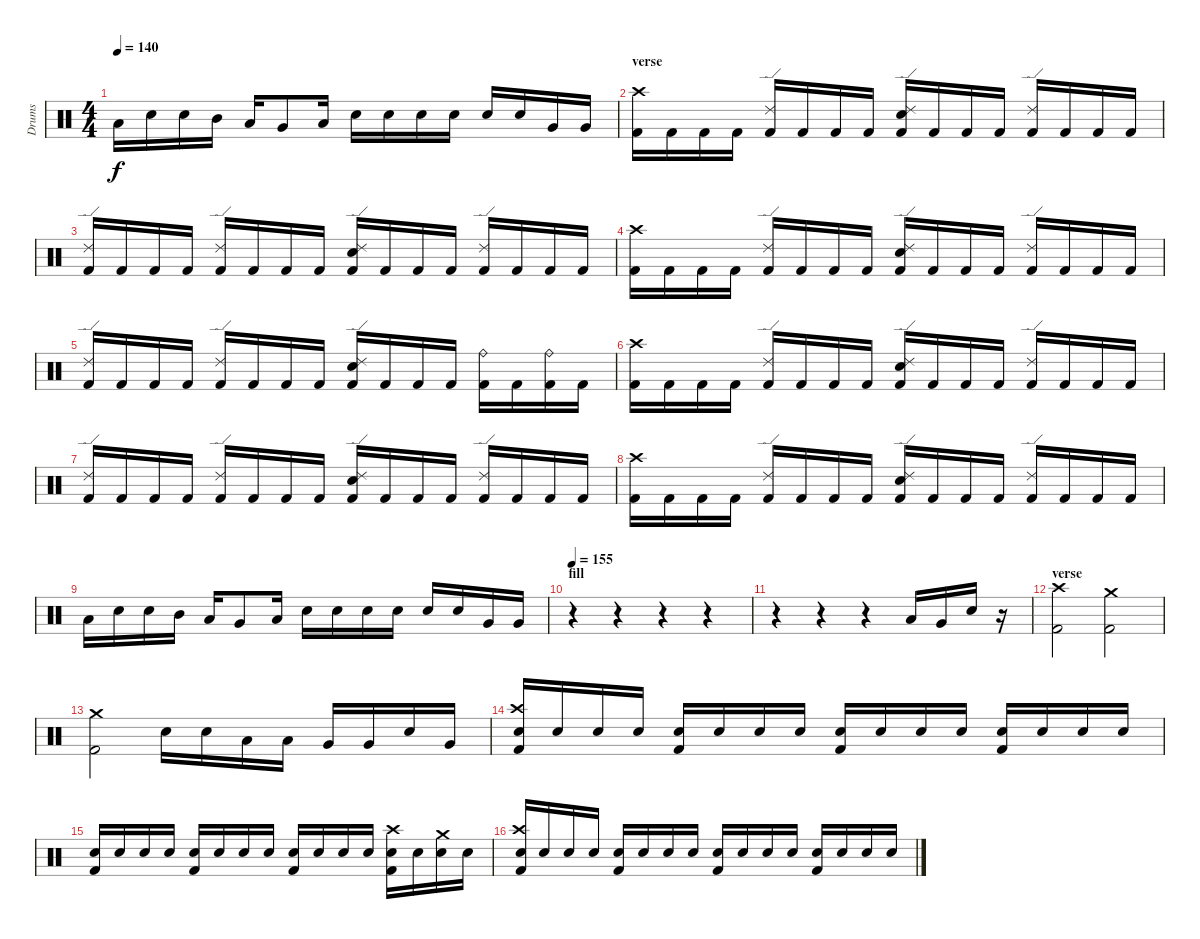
\track ("Drums" "Drums") {instrument percussion}
\staff {score}
\articulation defaults
\ts (4 4)
\tempo 140
\clef neutral
\ks c "Low Tom (hit)".16{dy f} "Snare (hit) 2".16 "Snare (hit) 2".16 "Mid Tom (hit)".16 "Low Tom (hit)".16 "Very Low Tom (hit)".8 "Low Tom (hit)".16 "Snare (hit) 2".16 "Snare (hit) 2".16 "Snare (hit) 2".16 "Snare (hit) 2".16 "Snare (hit) 2".16 "Snare (hit) 2".16 "Very Low Tom (hit)".16 "Very Low Tom (hit)".16
|
\section ("" "verse")
("Crash high (hit)" "Kick (hit) 2").16 "Kick (hit) 2".16 "Kick (hit) 2".16 "Kick (hit) 2".16 ("Ride (edge) 2" "Kick (hit) 2").16 "Kick (hit) 2".16 "Kick (hit) 2".16 "Kick (hit) 2".16 ("Ride (edge) 2" "Snare (hit) 2" "Kick (hit) 2").16 "Kick (hit) 2".16 "Kick (hit) 2".16 "Kick (hit) 2".16 ("Ride (edge) 2" "Kick (hit) 2").16 "Kick (hit) 2".16 "Kick (hit) 2".16 "Kick (hit) 2".16 |
("Ride (edge) 2" "Kick (hit) 2").16 "Kick (hit) 2".16 "Kick (hit) 2".16 "Kick (hit) 2".16 ("Ride (edge) 2" "Kick (hit) 2").16 "Kick (hit) 2".16 "Kick (hit) 2".16 "Kick (hit) 2".16 ("Ride (edge) 2" "Snare (hit) 2" "Kick (hit) 2").16 "Kick (hit) 2".16 "Kick (hit) 2".16 "Kick (hit) 2".16 ("Ride (edge) 2" "Kick (hit) 2").16 "Kick (hit) 2".16 "Kick (hit) 2".16 "Kick (hit) 2".16 |
("Crash high (hit)" "Kick (hit) 2").16 "Kick (hit) 2".16 "Kick (hit) 2".16 "Kick (hit) 2".16 ("Ride (edge) 2" "Kick (hit) 2").16 "Kick (hit) 2".16 "Kick (hit) 2".16 "Kick (hit) 2".16 ("Ride (edge) 2" "Snare (hit) 2" "Kick (hit) 2").16 "Kick (hit) 2".16 "Kick (hit) 2".16 "Kick (hit) 2".16 ("Ride (edge) 2" "Kick (hit) 2").16 "Kick (hit) 2".16 "Kick (hit) 2".16 "Kick (hit) 2".16 |
("Ride (edge) 2" "Kick (hit) 2").16 "Kick (hit) 2".16 "Kick (hit) 2".16 "Kick (hit) 2".16 ("Ride (edge) 2" "Kick (hit) 2").16 "Kick (hit) 2".16 "Kick (hit) 2".16 "Kick (hit) 2".16 ("Ride (edge) 2" "Snare (hit) 2" "Kick (hit) 2").16 "Kick (hit) 2".16 "Kick (hit) 2".16 "Kick (hit) 2".16 ("Ride (bell)" "Kick (hit) 2").16 "Kick (hit) 2".16 ("Ride (bell)" "Kick (hit) 2").16 "Kick (hit) 2".16 |
("Crash high (hit)" "Kick (hit) 2").16 "Kick (hit) 2".16 "Kick (hit) 2".16 "Kick (hit) 2".16 ("Ride (edge) 2" "Kick (hit) 2").16 "Kick (hit) 2".16 "Kick (hit) 2".16 "Kick (hit) 2".16 ("Ride (edge) 2" "Snare (hit) 2" "Kick (hit) 2").16 "Kick (hit) 2".16 "Kick (hit) 2".16 "Kick (hit) 2".16 ("Ride (edge) 2" "Kick (hit) 2").16 "Kick (hit) 2".16 "Kick (hit) 2".16 "Kick (hit) 2".16 |
("Ride (edge) 2" "Kick (hit) 2").16 "Kick (hit) 2".16 "Kick (hit) 2".16 "Kick (hit) 2".16 ("Ride (edge) 2" "Kick (hit) 2").16 "Kick (hit) 2".16 "Kick (hit) 2".16 "Kick (hit) 2".16 ("Ride (edge) 2" "Snare (hit) 2" "Kick (hit) 2").16 "Kick (hit) 2".16 "Kick (hit) 2".16 "Kick (hit) 2".16 ("Ride (edge) 2" "Kick (hit) 2").16 "Kick (hit) 2".16 "Kick (hit) 2".16 "Kick (hit) 2".16 |
("Crash high (hit)" "Kick (hit) 2").16 "Kick (hit) 2".16 "Kick (hit) 2".16 "Kick (hit) 2".16 ("Ride (edge) 2" "Kick (hit) 2").16 "Kick (hit) 2".16 "Kick (hit) 2".16 "Kick (hit) 2".16 ("Ride (edge) 2" "Snare (hit) 2" "Kick (hit) 2").16 "Kick (hit) 2".16 "Kick (hit) 2".16 "Kick (hit) 2".16 ("Ride (edge) 2" "Kick (hit) 2").16 "Kick (hit) 2".16 "Kick (hit) 2".16 "Kick (hit) 2".16 |
"Low Tom (hit)".16 "Snare (hit) 2".16 "Snare (hit) 2".16 "Mid Tom (hit)".16 "Low Tom (hit)".16 "Very Low Tom (hit)".8 "Low Tom (hit)".16 "Snare (hit) 2".16 "Snare (hit) 2".16 "Snare (hit) 2".16 "Snare (hit) 2".16 "Snare (hit) 2".16 "Snare (hit) 2".16 "Very Low Tom (hit)".16 "Very Low Tom (hit)".16 |
\section ("" "fill")
\tempo 155
r.4 r.4 r.4 r.4 |
r.4 r.4 r.4 "Low Tom (hit)".16 "Very Low Tom (hit)".16 "Snare (hit) 2".16 r.16 |
\section ("" "verse")
("Crash high (hit)" "Kick (hit) 2").2 ("Crash medium (hit)" "Kick (hit) 2").2 |
("Crash medium (hit)" "Kick (hit) 2").2 "Snare (hit) 2".16 "Snare (hit) 2".16 "Low Tom (hit)".16 "Low Tom (hit)".16 "Very Low Tom (hit)".16 "Very Low Tom (hit)".16 "Snare (hit) 2".16 "Very Low Tom (hit)".16 |
("Crash high (hit)" "Snare (hit) 2" "Kick (hit) 2").16 "Snare (hit) 2".16 "Snare (hit) 2".16 "Snare (hit) 2".16 ("Snare (hit) 2" "Kick (hit) 2").16 "Snare (hit) 2".16 "Snare (hit) 2".16 "Snare (hit) 2".16 ("Snare (hit) 2" "Kick (hit) 2").16 "Snare (hit) 2".16 "Snare (hit) 2".16 "Snare (hit) 2".16 ("Snare (hit) 2" "Kick (hit) 2").16 "Snare (hit) 2".16 "Snare (hit) 2".16 "Snare (hit) 2".16 |
("Snare (hit) 2" "Kick (hit) 2").16 "Snare (hit) 2".16 "Snare (hit) 2".16 "Snare (hit) 2".16 ("Snare (hit) 2" "Kick (hit) 2").16 "Snare (hit) 2".16 "Snare (hit) 2".16 "Snare (hit) 2".16 ("Snare (hit) 2" "Kick (hit) 2").16 "Snare (hit) 2".16 "Snare (hit) 2".16 "Snare (hit) 2".16 ("Crash high (hit)" "Snare (hit) 2" "Kick (hit) 2").16 "Snare (hit) 2".16 ("Crash medium (hit)" "Snare (hit) 2").16 "Snare (hit) 2".16 |
("Crash high (hit)" "Snare (hit) 2" "Kick (hit) 2").16 "Snare (hit) 2".16 "Snare (hit) 2".16 "Snare (hit) 2".16 ("Snare (hit) 2" "Kick (hit) 2").16 "Snare (hit) 2".16 "Snare (hit) 2".16 "Snare (hit) 2".16 ("Snare (hit) 2" "Kick (hit) 2").16 "Snare (hit) 2".16 "Snare (hit) 2".16 "Snare (hit) 2".16 ("Snare (hit) 2" "Kick (hit) 2").16 "Snare (hit) 2".16 "Snare (hit) 2".16 "Snare (hit) 2".16
